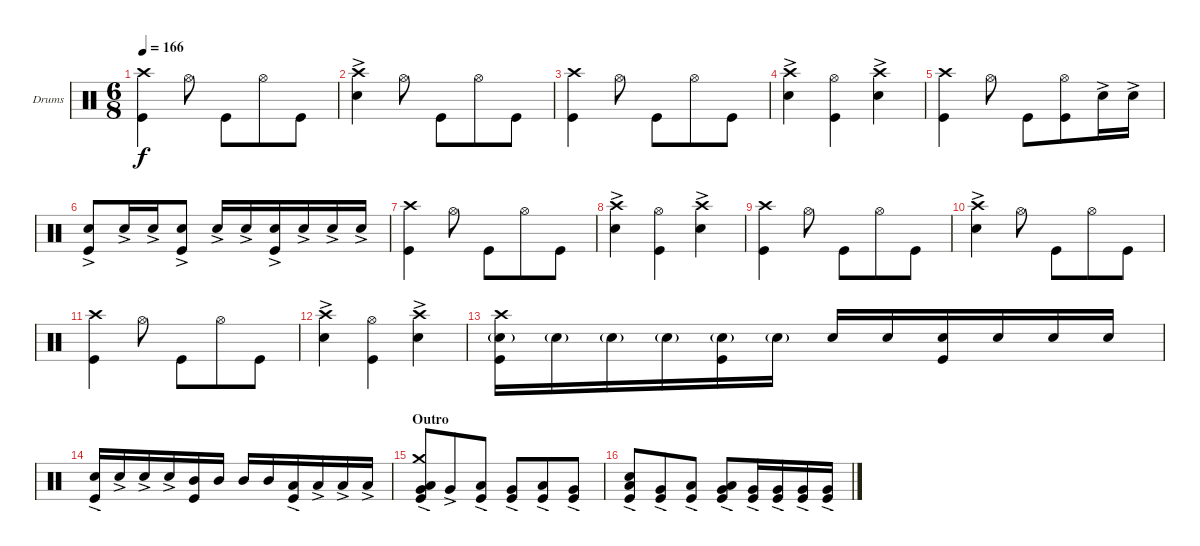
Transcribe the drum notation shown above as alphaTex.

\bracketExtendMode groupsimilarinstruments
\firstSystemTrackNameOrientation horizontal
\otherSystemsTrackNameOrientation horizontal
\track ("Drumkit" "Drums") {instrument percussion}
\staff {score}
\articulation defaults
\ts (6 8)
\tempo 166
\clef neutral
\ks c
("Crash high (hit)" "Kick (hit)").4{dy f} "Hi-Hat (open)".8 "Kick (hit)".8 "Hi-Hat (open)".8 "Kick (hit)".8 |
("Crash high (hit)" "Snare (hit) 2"{ac}).4 "Hi-Hat (open)".8 "Kick (hit)".8 "Hi-Hat (open)".8 "Kick (hit)".8 |
("Crash high (hit)" "Kick (hit)").4 "Hi-Hat (open)".8 "Kick (hit)".8 "Hi-Hat (open)".8 "Kick (hit)".8 |
("Crash high (hit)" "Snare (hit) 2"{ac}).4 ("Hi-Hat (open)" "Kick (hit)").4 ("Crash high (hit)" "Snare (hit) 2"{ac}).4 |
("Crash high (hit)" "Kick (hit)").4 "Hi-Hat (open)".8 "Kick (hit)".8 ("Hi-Hat (open)" "Kick (hit)").8 "Snare (hit) 2"{ac}.16 "Snare (hit) 2"{ac}.16 |
("Snare (hit) 2"{ac} "Kick (hit)").8 "Snare (hit) 2"{ac}.16 "Snare (hit) 2"{ac}.16 ("Snare (hit) 2"{ac} "Kick (hit)").8 "Snare (hit) 2"{ac}.16 "Snare (hit) 2"{ac}.16 ("Snare (hit) 2"{ac} "Kick (hit)").16 "Snare (hit) 2"{ac}.16 "Snare (hit) 2"{ac}.16 "Snare (hit) 2"{ac}.16 |
("Crash high (hit)" "Kick (hit)").4 "Hi-Hat (open)".8 "Kick (hit)".8 "Hi-Hat (open)".8 "Kick (hit)".8 |
("Crash high (hit)" "Snare (hit) 2"{ac}).4 ("Hi-Hat (open)" "Kick (hit)").4 ("Crash high (hit)" "Snare (hit) 2"{ac}).4 |
("Crash high (hit)" "Kick (hit)").4 "Hi-Hat (open)".8 "Kick (hit)".8 "Hi-Hat (open)".8 "Kick (hit)".8 |
("Crash high (hit)" "Snare (hit) 2"{ac}).4 "Hi-Hat (open)".8 "Kick (hit)".8 "Hi-Hat (open)".8 "Kick (hit)".8 |
("Crash high (hit)" "Kick (hit)").4 "Hi-Hat (open)".8 "Kick (hit)".8 "Hi-Hat (open)".8 "Kick (hit)".8 |
("Crash high (hit)" "Snare (hit) 2"{ac}).4 ("Hi-Hat (open)" "Kick (hit)").4 ("Crash high (hit)" "Snare (hit) 2"{ac}).4 |
("Crash high (hit)" "Snare (hit) 2"{g} "Kick (hit)").16 "Snare (hit) 2"{g}.16 "Snare (hit) 2"{g}.16 "Snare (hit) 2"{g}.16 ("Snare (hit) 2"{g} "Kick (hit)").16 "Snare (hit) 2"{g}.16 "Snare (hit) 2".16 "Snare (hit) 2".16 ("Snare (hit) 2" "Kick (hit)").16 "Snare (hit) 2".16 "Snare (hit) 2".16 "Snare (hit) 2".16 |
("Snare (hit) 2"{ac} "Kick (hit)").16 "Snare (hit) 2"{ac}.16 "Snare (hit) 2"{ac}.16 "Snare (hit) 2"{ac}.16 ("Kick (hit)" "Mid Tom (hit)").16 "Mid Tom (hit)".16 "Mid Tom (hit)".16 "Mid Tom (hit)".16 ("Kick (hit)" "Low Tom (hit)"{ac}).16 "Low Tom (hit)"{ac}.16 "Low Tom (hit)"{ac}.16 "Low Tom (hit)"{ac}.16 |
\section ("" "Outro")
("Crash medium (hit)" "Low Tom (hit)"{ac} "Kick (hit)" "Very Low Tom (hit)"{ac}).8 "Very Low Tom (hit)"{ac}.8 ("Low Tom (hit)"{ac} "Kick (hit)").8 ("Very Low Tom (hit)"{ac} "Kick (hit)").8 ("Kick (hit)" "Low Tom (hit)"{ac}).8 ("Very Low Tom (hit)"{ac} "Kick (hit)").8 |
("Snare (hit) 2"{ac} "Kick (hit)" "Low Tom (hit)"{ac}).8 ("Very Low Tom (hit)"{ac} "Kick (hit)").8 ("Low Tom (hit)"{ac} "Kick (hit)").8 ("Low Tom (hit)"{ac} "Very Low Tom (hit)"{ac} "Kick (hit)").8 ("Very Low Tom (hit)"{ac} "Kick (hit)").16 ("Very Low Tom (hit)"{ac} "Kick (hit)").16 ("Very Low Tom (hit)"{ac} "Kick (hit)").16 ("Very Low Tom (hit)"{ac} "Kick (hit)").16
